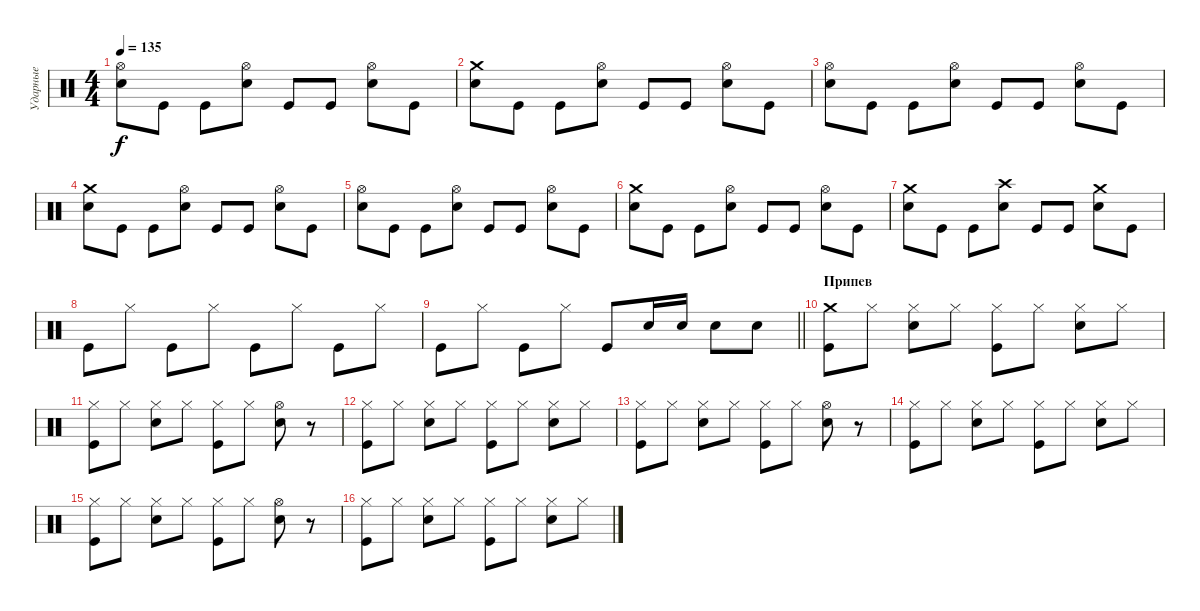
\track ("Ударные" "Ударные") {instrument percussion}
\staff {score}
\articulation defaults
\ts (4 4)
\tempo 135
\clef neutral
\ks c
("Hi-Hat (open)" "Electric Snare (hit)").8{dy f} "Kick (hit)".8 "Kick (hit)".8 ("Hi-Hat (open)" "Electric Snare (hit)").8 "Kick (hit)".8 "Kick (hit)".8 ("Hi-Hat (open)" "Electric Snare (hit)").8 "Kick (hit)".8 |
("Crash medium (hit)" "Electric Snare (hit)").8 "Kick (hit)".8 "Kick (hit)".8 ("Hi-Hat (open)" "Electric Snare (hit)").8 "Kick (hit)".8 "Kick (hit)".8 ("Hi-Hat (open)" "Electric Snare (hit)").8 "Kick (hit)".8 |
("Hi-Hat (open)" "Electric Snare (hit)").8 "Kick (hit)".8 "Kick (hit)".8 ("Hi-Hat (open)" "Electric Snare (hit)").8 "Kick (hit)".8 "Kick (hit)".8 ("Hi-Hat (open)" "Electric Snare (hit)").8 "Kick (hit)".8 |
("Crash medium (hit)" "Electric Snare (hit)").8 "Kick (hit)".8 "Kick (hit)".8 ("Hi-Hat (open)" "Electric Snare (hit)").8 "Kick (hit)".8 "Kick (hit)".8 ("Hi-Hat (open)" "Electric Snare (hit)").8 "Kick (hit)".8 |
("Hi-Hat (open)" "Electric Snare (hit)").8 "Kick (hit)".8 "Kick (hit)".8 ("Hi-Hat (open)" "Electric Snare (hit)").8 "Kick (hit)".8 "Kick (hit)".8 ("Hi-Hat (open)" "Electric Snare (hit)").8 "Kick (hit)".8 |
("Crash medium (hit)" "Electric Snare (hit)").8 "Kick (hit)".8 "Kick (hit)".8 ("Hi-Hat (open)" "Electric Snare (hit)").8 "Kick (hit)".8 "Kick (hit)".8 ("Hi-Hat (open)" "Electric Snare (hit)").8 "Kick (hit)".8 |
("Crash medium (hit)" "Electric Snare (hit)").8 "Kick (hit)".8 "Kick (hit)".8 ("Crash high (hit)" "Electric Snare (hit)").8 "Kick (hit)".8 "Kick (hit)".8 ("Crash medium (hit)" "Electric Snare (hit)").8 "Kick (hit)".8 |
"Kick (hit)".8 "Hi-Hat (closed)".8 "Kick (hit)".8 "Hi-Hat (closed)".8 "Kick (hit)".8 "Hi-Hat (closed)".8 "Kick (hit)".8 "Hi-Hat (closed)".8 |
\barLineRight lightlight "Kick (hit)".8 "Hi-Hat (closed)".8 "Kick (hit)".8 "Hi-Hat (closed)".8 "Kick (hit)".8 "Electric Snare (hit)".16 "Electric Snare (hit)".16 "Electric Snare (hit)".8 "Electric Snare (hit)".8
|
\section ("" "Припев")
("Crash medium (hit)" "Kick (hit)").8 "Hi-Hat (closed)".8 ("Hi-Hat (closed)" "Electric Snare (hit)").8 "Hi-Hat (closed)".8 ("Hi-Hat (closed)" "Kick (hit)").8 "Hi-Hat (closed)".8 ("Hi-Hat (closed)" "Electric Snare (hit)").8 "Hi-Hat (closed)".8 |
("Hi-Hat (closed)" "Kick (hit)").8 "Hi-Hat (closed)".8 ("Hi-Hat (closed)" "Electric Snare (hit)").8 "Hi-Hat (closed)".8 ("Hi-Hat (closed)" "Kick (hit)").8 "Hi-Hat (closed)".8 ("Hi-Hat (open)" "Electric Snare (hit)").8 r.8 |
("Hi-Hat (closed)" "Kick (hit)").8 "Hi-Hat (closed)".8 ("Hi-Hat (closed)" "Electric Snare (hit)").8 "Hi-Hat (closed)".8 ("Hi-Hat (closed)" "Kick (hit)").8 "Hi-Hat (closed)".8 ("Hi-Hat (closed)" "Electric Snare (hit)").8 "Hi-Hat (closed)".8 |
("Hi-Hat (closed)" "Kick (hit)").8 "Hi-Hat (closed)".8 ("Hi-Hat (closed)" "Electric Snare (hit)").8 "Hi-Hat (closed)".8 ("Hi-Hat (closed)" "Kick (hit)").8 "Hi-Hat (closed)".8 ("Hi-Hat (open)" "Electric Snare (hit)").8 r.8 |
("Hi-Hat (closed)" "Kick (hit)").8 "Hi-Hat (closed)".8 ("Hi-Hat (closed)" "Electric Snare (hit)").8 "Hi-Hat (closed)".8 ("Hi-Hat (closed)" "Kick (hit)").8 "Hi-Hat (closed)".8 ("Hi-Hat (closed)" "Electric Snare (hit)").8 "Hi-Hat (closed)".8 |
("Hi-Hat (closed)" "Kick (hit)").8 "Hi-Hat (closed)".8 ("Hi-Hat (closed)" "Electric Snare (hit)").8 "Hi-Hat (closed)".8 ("Hi-Hat (closed)" "Kick (hit)").8 "Hi-Hat (closed)".8 ("Hi-Hat (open)" "Electric Snare (hit)").8 r.8 |
("Hi-Hat (closed)" "Kick (hit)").8 "Hi-Hat (closed)".8 ("Hi-Hat (closed)" "Electric Snare (hit)").8 "Hi-Hat (closed)".8 ("Hi-Hat (closed)" "Kick (hit)").8 "Hi-Hat (closed)".8 ("Hi-Hat (closed)" "Electric Snare (hit)").8 "Hi-Hat (closed)".8
